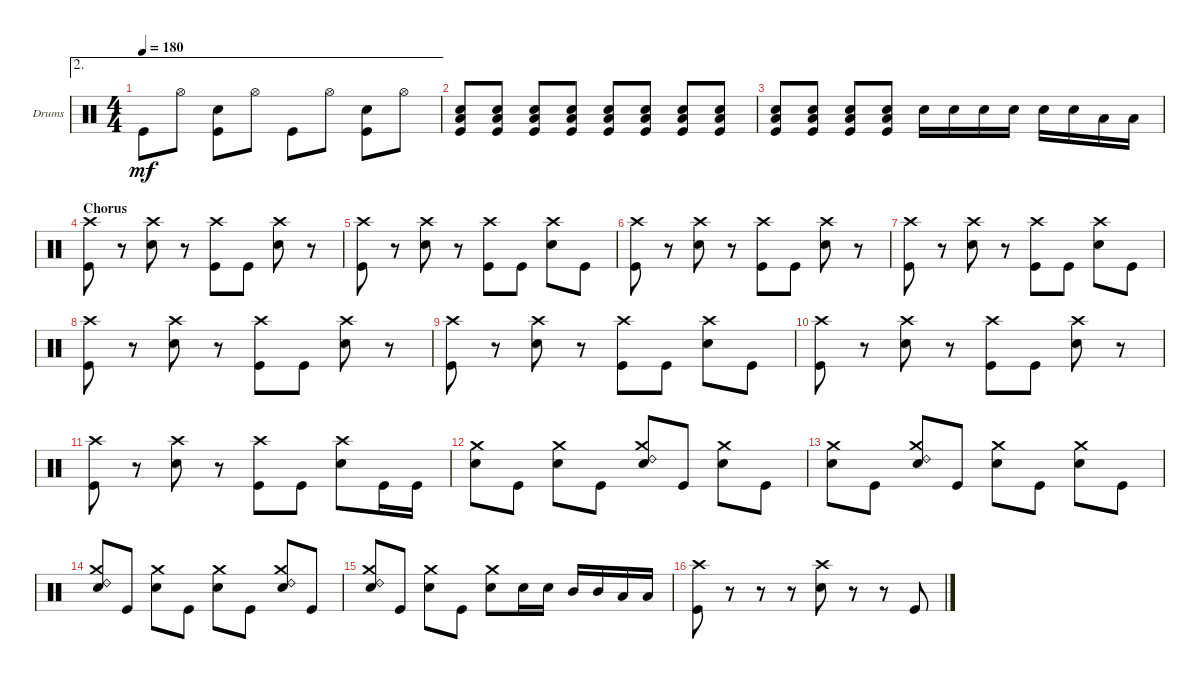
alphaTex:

\bracketExtendMode groupsimilarinstruments
\firstSystemTrackNameOrientation horizontal
\otherSystemsTrackNameOrientation horizontal
\track ("Drumkit" "Drums") {instrument percussion}
\staff {score}
\articulation defaults
\ae 2
\ts (4 4)
\tempo 180
\clef neutral
\ks c "Kick (hit)".8{dy mf} "Hi-Hat (open)".8
("Snare (hit) 2" "Kick (hit)").8 "Hi-Hat (open)".8 "Kick (hit)".8 "Hi-Hat (open)".8 ("Snare (hit) 2" "Kick (hit)").8 "Hi-Hat (open)".8 |
("Kick (hit)" "Snare (hit) 2" "Low Tom (hit)").8 ("Kick (hit)" "Snare (hit) 2" "Low Tom (hit)").8 ("Kick (hit)" "Snare (hit) 2" "Low Tom (hit)").8 ("Kick (hit)" "Snare (hit) 2" "Low Tom (hit)").8 ("Kick (hit)" "Snare (hit) 2" "Low Tom (hit)").8 ("Kick (hit)" "Snare (hit) 2" "Low Tom (hit)").8 ("Kick (hit)" "Snare (hit) 2" "Low Tom (hit)").8 ("Kick (hit)" "Snare (hit) 2" "Low Tom (hit)").8 |
("Kick (hit)" "Snare (hit) 2" "Low Tom (hit)").8 ("Kick (hit)" "Snare (hit) 2" "Low Tom (hit)").8 ("Kick (hit)" "Snare (hit) 2" "Low Tom (hit)").8 ("Kick (hit)" "Snare (hit) 2" "Low Tom (hit)").8 "Snare (hit) 2".16 "Snare (hit) 2".16 "Snare (hit) 2".16 "Snare (hit) 2".16 "Snare (hit) 2".16 "Snare (hit) 2".16 "Low Tom (hit)".16 "Low Tom (hit)".16 |
\section ("" "Chorus")
("Kick (hit)" "Crash high (hit)").8 r.8 ("Snare (hit) 2" "Crash high (hit)").8 r.8 ("Kick (hit)" "Crash high (hit)").8 "Kick (hit)".8 ("Snare (hit) 2" "Crash high (hit)").8 r.8 |
("Kick (hit)" "Crash high (hit)").8 r.8 ("Snare (hit) 2" "Crash high (hit)").8 r.8 ("Kick (hit)" "Crash high (hit)").8 "Kick (hit)".8 ("Snare (hit) 2" "Crash high (hit)").8 "Kick (hit)".8 |
("Kick (hit)" "Crash high (hit)").8 r.8 ("Snare (hit) 2" "Crash high (hit)").8 r.8 ("Kick (hit)" "Crash high (hit)").8 "Kick (hit)".8 ("Snare (hit) 2" "Crash high (hit)").8 r.8 |
("Kick (hit)" "Crash high (hit)").8 r.8 ("Snare (hit) 2" "Crash high (hit)").8 r.8 ("Kick (hit)" "Crash high (hit)").8 "Kick (hit)".8 ("Snare (hit) 2" "Crash high (hit)").8 "Kick (hit)".8 |
("Kick (hit)" "Crash high (hit)").8 r.8 ("Snare (hit) 2" "Crash high (hit)").8 r.8 ("Kick (hit)" "Crash high (hit)").8 "Kick (hit)".8 ("Snare (hit) 2" "Crash high (hit)").8 r.8 |
("Kick (hit)" "Crash high (hit)").8 r.8 ("Snare (hit) 2" "Crash high (hit)").8 r.8 ("Kick (hit)" "Crash high (hit)").8 "Kick (hit)".8 ("Snare (hit) 2" "Crash high (hit)").8 "Kick (hit)".8 |
("Kick (hit)" "Crash high (hit)").8 r.8 ("Snare (hit) 2" "Crash high (hit)").8 r.8 ("Kick (hit)" "Crash high (hit)").8 "Kick (hit)".8 ("Snare (hit) 2" "Crash high (hit)").8 r.8 |
("Kick (hit)" "Crash high (hit)").8 r.8 ("Snare (hit) 2" "Crash high (hit)").8 r.8 ("Kick (hit)" "Crash high (hit)").8 "Kick (hit)".8 ("Snare (hit) 2" "Crash high (hit)").8 "Kick (hit)".16 "Kick (hit)".16 |
("Snare (hit) 2" "Crash medium (hit)").8 "Kick (hit)".8 ("Snare (hit) 2" "Crash medium (hit)").8 "Kick (hit)".8 ("Snare (hit) 2" "Ride (bell) 2" "Crash medium (hit)").8 "Kick (hit)".8 ("Snare (hit) 2" "Crash medium (hit)").8 "Kick (hit)".8 |
("Snare (hit) 2" "Crash medium (hit)").8 "Kick (hit)".8 ("Snare (hit) 2" "Crash medium (hit)" "Ride (bell) 2").8 "Kick (hit)".8 ("Snare (hit) 2" "Crash medium (hit)").8 "Kick (hit)".8 ("Snare (hit) 2" "Crash medium (hit)").8 "Kick (hit)".8 |
("Snare (hit) 2" "Crash medium (hit)" "Ride (bell) 2").8 "Kick (hit)".8 ("Snare (hit) 2" "Crash medium (hit)").8 "Kick (hit)".8 ("Snare (hit) 2" "Crash medium (hit)").8 "Kick (hit)".8 ("Snare (hit) 2" "Crash medium (hit)" "Ride (bell) 2").8 "Kick (hit)".8 |
("Snare (hit) 2" "Crash medium (hit)" "Ride (bell) 2").8 "Kick (hit)".8 ("Snare (hit) 2" "Crash medium (hit)").8 "Kick (hit)".8 ("Snare (hit) 2" "Crash medium (hit)").8 "Snare (hit) 2".16 "Snare (hit) 2".16 "Mid Tom (hit)".16 "Mid Tom (hit)".16 "Low Tom (hit)".16 "Low Tom (hit)".16 |
("Kick (hit)" "Crash high (hit)").8 r.8 r.8 r.8 ("Snare (hit) 2" "Crash high (hit)").8 r.8 r.8 "Kick (hit)".8
